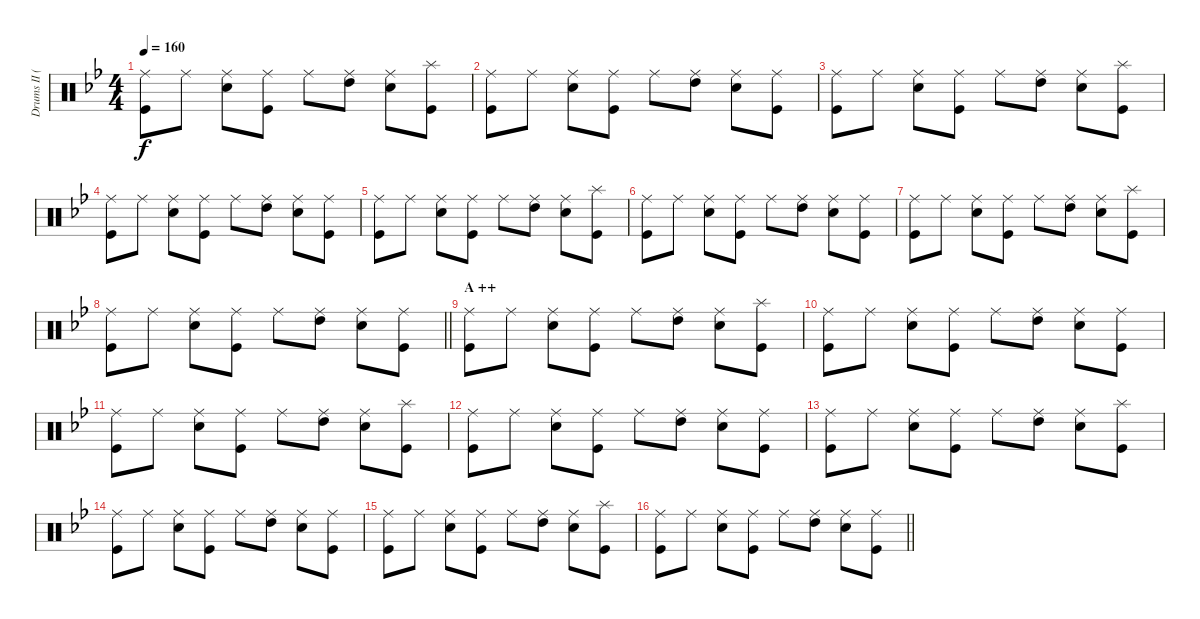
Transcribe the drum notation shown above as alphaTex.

\track ("Drums II (Tainaka Ritsu)" "Drums II (") {instrument percussion}
\staff {score}
\articulation defaults
\ts (4 4)
\tempo 160
\clef neutral
\ks bb
("Ride (middle)" "Kick (hit)").8{dy f} "Ride (middle)".8 ("Ride (middle)" "Snare (hit) 2").8 ("Ride (middle)" "Kick (hit)").8 "Ride (middle)".8 ("Ride (middle)" "High Tom (hit)").8 ("Ride (middle)" "Snare (hit) 2").8 ("Splash (hit)" "Kick (hit)").8 |
("Ride (middle)" "Kick (hit)").8 "Ride (middle)".8 ("Ride (middle)" "Snare (hit) 2").8 ("Ride (middle)" "Kick (hit)").8 "Ride (middle)".8 ("Ride (middle)" "High Tom (hit)").8 ("Ride (middle)" "Snare (hit) 2").8 ("Ride (middle)" "Kick (hit)").8 |
("Ride (middle)" "Kick (hit)").8 "Ride (middle)".8 ("Ride (middle)" "Snare (hit) 2").8 ("Ride (middle)" "Kick (hit)").8 "Ride (middle)".8 ("Ride (middle)" "High Tom (hit)").8 ("Ride (middle)" "Snare (hit) 2").8 ("Splash (hit)" "Kick (hit)").8 |
("Ride (middle)" "Kick (hit)").8 "Ride (middle)".8 ("Ride (middle)" "Snare (hit) 2").8 ("Ride (middle)" "Kick (hit)").8 "Ride (middle)".8 ("Ride (middle)" "High Tom (hit)").8 ("Ride (middle)" "Snare (hit) 2").8 ("Ride (middle)" "Kick (hit)").8 |
("Ride (middle)" "Kick (hit)").8 "Ride (middle)".8 ("Ride (middle)" "Snare (hit) 2").8 ("Ride (middle)" "Kick (hit)").8 "Ride (middle)".8 ("Ride (middle)" "High Tom (hit)").8 ("Ride (middle)" "Snare (hit) 2").8 ("Splash (hit)" "Kick (hit)").8 |
("Ride (middle)" "Kick (hit)").8 "Ride (middle)".8 ("Ride (middle)" "Snare (hit) 2").8 ("Ride (middle)" "Kick (hit)").8 "Ride (middle)".8 ("Ride (middle)" "High Tom (hit)").8 ("Ride (middle)" "Snare (hit) 2").8 ("Ride (middle)" "Kick (hit)").8 |
("Ride (middle)" "Kick (hit)").8 "Ride (middle)".8 ("Ride (middle)" "Snare (hit) 2").8 ("Ride (middle)" "Kick (hit)").8 "Ride (middle)".8 ("Ride (middle)" "High Tom (hit)").8 ("Ride (middle)" "Snare (hit) 2").8 ("Splash (hit)" "Kick (hit)").8 |
\barLineRight lightlight
("Ride (middle)" "Kick (hit)").8 "Ride (middle)".8 ("Ride (middle)" "Snare (hit) 2").8 ("Ride (middle)" "Kick (hit)").8 "Ride (middle)".8 ("Ride (middle)" "High Tom (hit)").8 ("Ride (middle)" "Snare (hit) 2").8 ("Ride (middle)" "Kick (hit)").8 |
\section ("" "A ++")
("Ride (middle)" "Kick (hit)").8 "Ride (middle)".8 ("Ride (middle)" "Snare (hit) 2").8 ("Ride (middle)" "Kick (hit)").8 "Ride (middle)".8 ("Ride (middle)" "High Tom (hit)").8 ("Ride (middle)" "Snare (hit) 2").8 ("Splash (hit)" "Kick (hit)").8 |
("Ride (middle)" "Kick (hit)").8 "Ride (middle)".8 ("Ride (middle)" "Snare (hit) 2").8 ("Ride (middle)" "Kick (hit)").8 "Ride (middle)".8 ("Ride (middle)" "High Tom (hit)").8 ("Ride (middle)" "Snare (hit) 2").8 ("Ride (middle)" "Kick (hit)").8 |
("Ride (middle)" "Kick (hit)").8 "Ride (middle)".8 ("Ride (middle)" "Snare (hit) 2").8 ("Ride (middle)" "Kick (hit)").8 "Ride (middle)".8 ("Ride (middle)" "High Tom (hit)").8 ("Ride (middle)" "Snare (hit) 2").8 ("Splash (hit)" "Kick (hit)").8 |
("Ride (middle)" "Kick (hit)").8 "Ride (middle)".8 ("Ride (middle)" "Snare (hit) 2").8 ("Ride (middle)" "Kick (hit)").8 "Ride (middle)".8 ("Ride (middle)" "High Tom (hit)").8 ("Ride (middle)" "Snare (hit) 2").8 ("Ride (middle)" "Kick (hit)").8 |
("Ride (middle)" "Kick (hit)").8 "Ride (middle)".8 ("Ride (middle)" "Snare (hit) 2").8 ("Ride (middle)" "Kick (hit)").8 "Ride (middle)".8 ("Ride (middle)" "High Tom (hit)").8 ("Ride (middle)" "Snare (hit) 2").8 ("Splash (hit)" "Kick (hit)").8 |
("Ride (middle)" "Kick (hit)").8 "Ride (middle)".8 ("Ride (middle)" "Snare (hit) 2").8 ("Ride (middle)" "Kick (hit)").8 "Ride (middle)".8 ("Ride (middle)" "High Tom (hit)").8 ("Ride (middle)" "Snare (hit) 2").8 ("Ride (middle)" "Kick (hit)").8 |
("Ride (middle)" "Kick (hit)").8 "Ride (middle)".8 ("Ride (middle)" "Snare (hit) 2").8 ("Ride (middle)" "Kick (hit)").8 "Ride (middle)".8 ("Ride (middle)" "High Tom (hit)").8 ("Ride (middle)" "Snare (hit) 2").8 ("Splash (hit)" "Kick (hit)").8 |
\barLineRight lightlight
("Ride (middle)" "Kick (hit)").8 "Ride (middle)".8 ("Ride (middle)" "Snare (hit) 2").8 ("Ride (middle)" "Kick (hit)").8 "Ride (middle)".8 ("Ride (middle)" "High Tom (hit)").8 ("Ride (middle)" "Snare (hit) 2").8 ("Ride (middle)" "Kick (hit)").8
